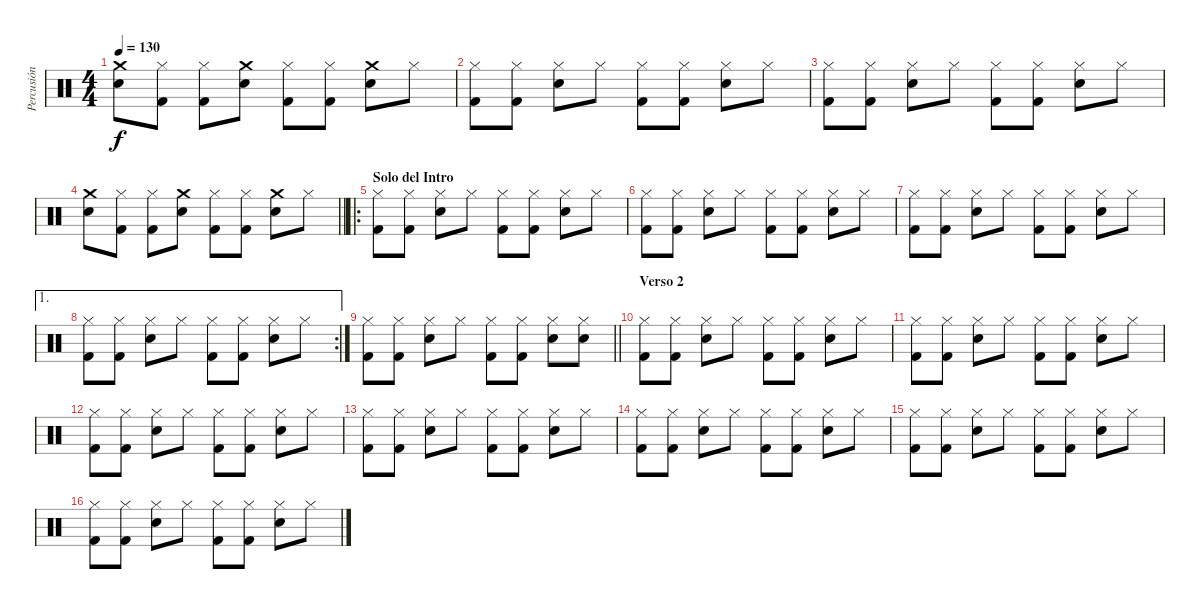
\track ("Percusión" "Percusión") {instrument percussion}
\staff {score}
\articulation defaults
\ts (4 4)
\tempo 130
\clef neutral
\ks c
("Crash medium (hit)" "Electric Snare (hit)").8{dy f} ("Hi-Hat (closed)" "Kick (hit) 2").8 ("Hi-Hat (closed)" "Kick (hit) 2").8 ("Crash medium (hit)" "Electric Snare (hit)").8 ("Hi-Hat (closed)" "Kick (hit) 2").8 ("Hi-Hat (closed)" "Kick (hit) 2").8 ("Crash medium (hit)" "Electric Snare (hit)").8 "Hi-Hat (closed)".8 |
("Hi-Hat (closed)" "Kick (hit) 2").8 ("Hi-Hat (closed)" "Kick (hit) 2").8 ("Hi-Hat (closed)" "Electric Snare (hit)").8 "Hi-Hat (closed)".8 ("Hi-Hat (closed)" "Kick (hit) 2").8 ("Hi-Hat (closed)" "Kick (hit) 2").8 ("Hi-Hat (closed)" "Electric Snare (hit)").8 "Hi-Hat (closed)".8 |
("Hi-Hat (closed)" "Kick (hit) 2").8 ("Hi-Hat (closed)" "Kick (hit) 2").8 ("Hi-Hat (closed)" "Electric Snare (hit)").8 "Hi-Hat (closed)".8 ("Hi-Hat (closed)" "Kick (hit) 2").8 ("Hi-Hat (closed)" "Kick (hit) 2").8 ("Hi-Hat (closed)" "Electric Snare (hit)").8 "Hi-Hat (closed)".8 |
\barLineRight lightlight
("Crash medium (hit)" "Electric Snare (hit)").8 ("Hi-Hat (closed)" "Kick (hit) 2").8 ("Hi-Hat (closed)" "Kick (hit) 2").8 ("Crash medium (hit)" "Electric Snare (hit)").8 ("Hi-Hat (closed)" "Kick (hit) 2").8 ("Hi-Hat (closed)" "Kick (hit) 2").8 ("Crash medium (hit)" "Electric Snare (hit)").8 "Hi-Hat (closed)".8 |
\ro
\section ("" "Solo del Intro")
("Hi-Hat (closed)" "Kick (hit) 2").8 ("Hi-Hat (closed)" "Kick (hit) 2").8 ("Hi-Hat (closed)" "Electric Snare (hit)").8 "Hi-Hat (closed)".8 ("Hi-Hat (closed)" "Kick (hit) 2").8 ("Hi-Hat (closed)" "Kick (hit) 2").8 ("Hi-Hat (closed)" "Electric Snare (hit)").8 "Hi-Hat (closed)".8 |
("Hi-Hat (closed)" "Kick (hit) 2").8 ("Hi-Hat (closed)" "Kick (hit) 2").8 ("Hi-Hat (closed)" "Electric Snare (hit)").8 "Hi-Hat (closed)".8 ("Hi-Hat (closed)" "Kick (hit) 2").8 ("Hi-Hat (closed)" "Kick (hit) 2").8 ("Hi-Hat (closed)" "Electric Snare (hit)").8 "Hi-Hat (closed)".8 |
("Hi-Hat (closed)" "Kick (hit) 2").8 ("Hi-Hat (closed)" "Kick (hit) 2").8 ("Hi-Hat (closed)" "Electric Snare (hit)").8 "Hi-Hat (closed)".8 ("Hi-Hat (closed)" "Kick (hit) 2").8 ("Hi-Hat (closed)" "Kick (hit) 2").8 ("Hi-Hat (closed)" "Electric Snare (hit)").8 "Hi-Hat (closed)".8 |
\ae 1
\rc 2
("Hi-Hat (closed)" "Kick (hit) 2").8 ("Hi-Hat (closed)" "Kick (hit) 2").8 ("Hi-Hat (closed)" "Electric Snare (hit)").8 "Hi-Hat (closed)".8 ("Hi-Hat (closed)" "Kick (hit) 2").8 ("Hi-Hat (closed)" "Kick (hit) 2").8 ("Hi-Hat (closed)" "Electric Snare (hit)").8 "Hi-Hat (closed)".8 |
\barLineRight lightlight
("Hi-Hat (closed)" "Kick (hit) 2").8 ("Hi-Hat (closed)" "Kick (hit) 2").8 ("Hi-Hat (closed)" "Electric Snare (hit)").8 "Hi-Hat (closed)".8 ("Hi-Hat (closed)" "Kick (hit) 2").8 ("Hi-Hat (closed)" "Kick (hit) 2").8 ("Hi-Hat (closed)" "Electric Snare (hit)").8 ("Hi-Hat (closed)" "Electric Snare (hit)").8 |
\section ("" "Verso 2")
("Hi-Hat (closed)" "Kick (hit) 2").8 ("Hi-Hat (closed)" "Kick (hit) 2").8 ("Hi-Hat (closed)" "Electric Snare (hit)").8 "Hi-Hat (closed)".8 ("Hi-Hat (closed)" "Kick (hit) 2").8 ("Hi-Hat (closed)" "Kick (hit) 2").8 ("Hi-Hat (closed)" "Electric Snare (hit)").8 "Hi-Hat (closed)".8 |
("Hi-Hat (closed)" "Kick (hit) 2").8 ("Hi-Hat (closed)" "Kick (hit) 2").8 ("Hi-Hat (closed)" "Electric Snare (hit)").8 "Hi-Hat (closed)".8 ("Hi-Hat (closed)" "Kick (hit) 2").8 ("Hi-Hat (closed)" "Kick (hit) 2").8 ("Hi-Hat (closed)" "Electric Snare (hit)").8 "Hi-Hat (closed)".8 |
("Hi-Hat (closed)" "Kick (hit) 2").8 ("Hi-Hat (closed)" "Kick (hit) 2").8 ("Hi-Hat (closed)" "Electric Snare (hit)").8 "Hi-Hat (closed)".8 ("Hi-Hat (closed)" "Kick (hit) 2").8 ("Hi-Hat (closed)" "Kick (hit) 2").8 ("Hi-Hat (closed)" "Electric Snare (hit)").8 "Hi-Hat (closed)".8 |
("Hi-Hat (closed)" "Kick (hit) 2").8 ("Hi-Hat (closed)" "Kick (hit) 2").8 ("Hi-Hat (closed)" "Electric Snare (hit)").8 "Hi-Hat (closed)".8 ("Hi-Hat (closed)" "Kick (hit) 2").8 ("Hi-Hat (closed)" "Kick (hit) 2").8 ("Hi-Hat (closed)" "Electric Snare (hit)").8 "Hi-Hat (closed)".8 |
("Hi-Hat (closed)" "Kick (hit) 2").8 ("Hi-Hat (closed)" "Kick (hit) 2").8 ("Hi-Hat (closed)" "Electric Snare (hit)").8 "Hi-Hat (closed)".8 ("Hi-Hat (closed)" "Kick (hit) 2").8 ("Hi-Hat (closed)" "Kick (hit) 2").8 ("Hi-Hat (closed)" "Electric Snare (hit)").8 "Hi-Hat (closed)".8 |
("Hi-Hat (closed)" "Kick (hit) 2").8 ("Hi-Hat (closed)" "Kick (hit) 2").8 ("Hi-Hat (closed)" "Electric Snare (hit)").8 "Hi-Hat (closed)".8 ("Hi-Hat (closed)" "Kick (hit) 2").8 ("Hi-Hat (closed)" "Kick (hit) 2").8 ("Hi-Hat (closed)" "Electric Snare (hit)").8 "Hi-Hat (closed)".8 |
("Hi-Hat (closed)" "Kick (hit) 2").8 ("Hi-Hat (closed)" "Kick (hit) 2").8 ("Hi-Hat (closed)" "Electric Snare (hit)").8 "Hi-Hat (closed)".8 ("Hi-Hat (closed)" "Kick (hit) 2").8 ("Hi-Hat (closed)" "Kick (hit) 2").8 ("Hi-Hat (closed)" "Electric Snare (hit)").8 "Hi-Hat (closed)".8
